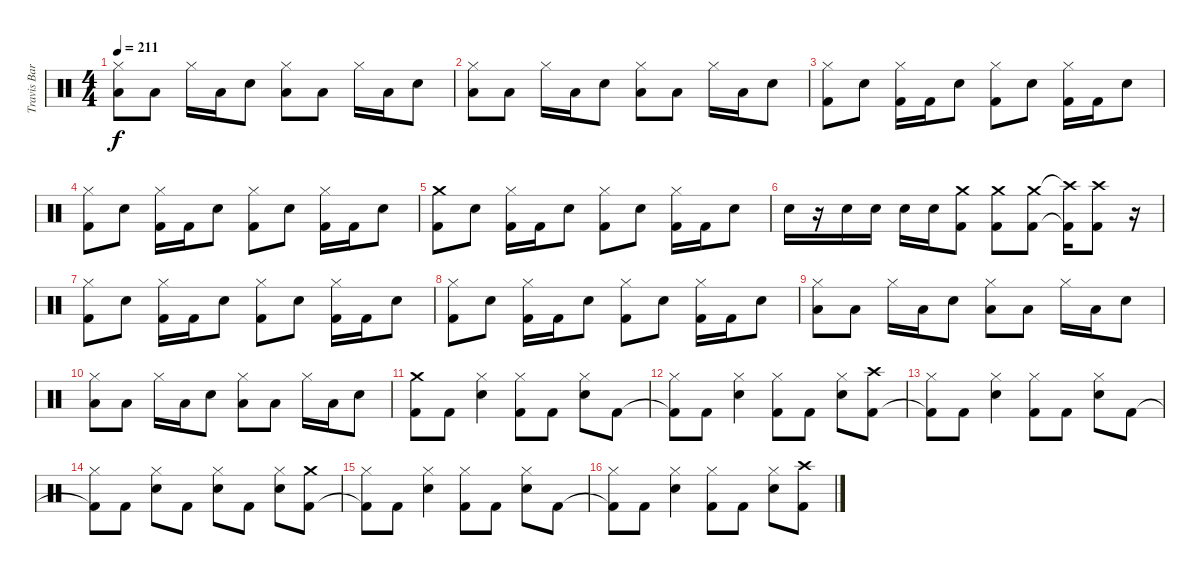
\track ("Travis Barker (Drums)" "Travis Bar") {instrument percussion}
\staff {score}
\articulation defaults
\ts (4 4)
\tempo 211
\clef neutral
\ks c
("Low Floor Tom (hit)" "Hi-Hat (closed)").8{dy f} "Low Floor Tom (hit)".8 "Hi-Hat (closed)".16 "Low Floor Tom (hit)".16 "Electric Snare (hit)".8 ("Low Floor Tom (hit)" "Hi-Hat (closed)").8 "Low Floor Tom (hit)".8 "Hi-Hat (closed)".16 "Low Floor Tom (hit)".16 "Electric Snare (hit)".8 |
("Low Floor Tom (hit)" "Hi-Hat (closed)").8 "Low Floor Tom (hit)".8 "Hi-Hat (closed)".16 "Low Floor Tom (hit)".16 "Electric Snare (hit)".8 ("Low Floor Tom (hit)" "Hi-Hat (closed)").8 "Low Floor Tom (hit)".8 "Hi-Hat (closed)".16 "Low Floor Tom (hit)".16 "Electric Snare (hit)".8 |
("Kick (hit) 2" "Hi-Hat (closed)").8 "Electric Snare (hit)".8 ("Kick (hit) 2" "Hi-Hat (closed)").16 "Kick (hit) 2".16 "Electric Snare (hit)".8 ("Kick (hit) 2" "Hi-Hat (closed)").8 "Electric Snare (hit)".8 ("Kick (hit) 2" "Hi-Hat (closed)").16 "Kick (hit) 2".16 "Electric Snare (hit)".8 |
("Kick (hit) 2" "Hi-Hat (closed)").8 "Electric Snare (hit)".8 ("Kick (hit) 2" "Hi-Hat (closed)").16 "Kick (hit) 2".16 "Electric Snare (hit)".8 ("Kick (hit) 2" "Hi-Hat (closed)").8 "Electric Snare (hit)".8 ("Kick (hit) 2" "Hi-Hat (closed)").16 "Kick (hit) 2".16 "Electric Snare (hit)".8 |
("Kick (hit) 2" "Crash medium (hit)").8 "Electric Snare (hit)".8 ("Kick (hit) 2" "Hi-Hat (closed)").16 "Kick (hit) 2".16 "Electric Snare (hit)".8 ("Kick (hit) 2" "Hi-Hat (closed)").8 "Electric Snare (hit)".8 ("Kick (hit) 2" "Hi-Hat (closed)").16 "Kick (hit) 2".16 "Electric Snare (hit)".8 |
"Electric Snare (hit)".16 r.16 "Electric Snare (hit)".16 "Electric Snare (hit)".16 "Electric Snare (hit)".16 "Electric Snare (hit)".16 ("Crash medium (hit)" "Kick (hit) 2").8 ("Crash medium (hit)" "Kick (hit) 2").8 ("Crash medium (hit)" "Kick (hit) 2").8 ("Crash high (hit)"{t} "Kick (hit) 2"{t}).16 ("Crash high (hit)" "Kick (hit) 2").8 r.16 |
("Kick (hit) 2" "Hi-Hat (closed)").8 "Electric Snare (hit)".8 ("Kick (hit) 2" "Hi-Hat (closed)").16 "Kick (hit) 2".16 "Electric Snare (hit)".8 ("Kick (hit) 2" "Hi-Hat (closed)").8 "Electric Snare (hit)".8 ("Kick (hit) 2" "Hi-Hat (closed)").16 "Kick (hit) 2".16 "Electric Snare (hit)".8 |
("Kick (hit) 2" "Hi-Hat (closed)").8 "Electric Snare (hit)".8 ("Kick (hit) 2" "Hi-Hat (closed)").16 "Kick (hit) 2".16 "Electric Snare (hit)".8 ("Kick (hit) 2" "Hi-Hat (closed)").8 "Electric Snare (hit)".8 ("Kick (hit) 2" "Hi-Hat (closed)").16 "Kick (hit) 2".16 "Electric Snare (hit)".8 |
("Low Floor Tom (hit)" "Hi-Hat (closed)").8 "Low Floor Tom (hit)".8 "Hi-Hat (closed)".16 "Low Floor Tom (hit)".16 "Electric Snare (hit)".8 ("Low Floor Tom (hit)" "Hi-Hat (closed)").8 "Low Floor Tom (hit)".8 "Hi-Hat (closed)".16 "Low Floor Tom (hit)".16 "Electric Snare (hit)".8 |
("Low Floor Tom (hit)" "Hi-Hat (closed)").8 "Low Floor Tom (hit)".8 "Hi-Hat (closed)".16 "Low Floor Tom (hit)".16 "Electric Snare (hit)".8 ("Low Floor Tom (hit)" "Hi-Hat (closed)").8 "Low Floor Tom (hit)".8 "Hi-Hat (closed)".16 "Low Floor Tom (hit)".16 "Electric Snare (hit)".8 |
("Kick (hit) 2" "Crash medium (hit)").8 "Kick (hit) 2".8 ("Electric Snare (hit)" "Hi-Hat (closed)").4 ("Kick (hit) 2" "Hi-Hat (closed)").8 "Kick (hit) 2".8 ("Electric Snare (hit)" "Hi-Hat (closed)").8 "Kick (hit) 2".8 |
("Kick (hit) 2"{t} "Hi-Hat (closed)").8 "Kick (hit) 2".8 ("Electric Snare (hit)" "Hi-Hat (closed)").4 ("Kick (hit) 2" "Hi-Hat (closed)").8 "Kick (hit) 2".8 ("Electric Snare (hit)" "Hi-Hat (closed)").8 ("Kick (hit) 2" "Crash high (hit)").8 |
("Kick (hit) 2"{t} "Hi-Hat (closed)").8 "Kick (hit) 2".8 ("Electric Snare (hit)" "Hi-Hat (closed)").4 ("Kick (hit) 2" "Hi-Hat (closed)").8 "Kick (hit) 2".8 ("Electric Snare (hit)" "Hi-Hat (closed)").8 "Kick (hit) 2".8 |
("Kick (hit) 2"{t} "Hi-Hat (closed)").8 "Kick (hit) 2".8 ("Electric Snare (hit)" "Hi-Hat (closed)").8 "Kick (hit) 2".8 ("Electric Snare (hit)" "Hi-Hat (closed)").8 "Kick (hit) 2".8 ("Electric Snare (hit)" "Hi-Hat (closed)").8 ("Kick (hit) 2" "Crash medium (hit)").8 |
("Kick (hit) 2"{t} "Hi-Hat (closed)").8 "Kick (hit) 2".8 ("Electric Snare (hit)" "Hi-Hat (closed)").4 ("Kick (hit) 2" "Hi-Hat (closed)").8 "Kick (hit) 2".8 ("Electric Snare (hit)" "Hi-Hat (closed)").8 "Kick (hit) 2".8 |
("Kick (hit) 2"{t} "Hi-Hat (closed)").8 "Kick (hit) 2".8 ("Electric Snare (hit)" "Hi-Hat (closed)").4 ("Kick (hit) 2" "Hi-Hat (closed)").8 "Kick (hit) 2".8 ("Electric Snare (hit)" "Hi-Hat (closed)").8 ("Kick (hit) 2" "Crash high (hit)").8
